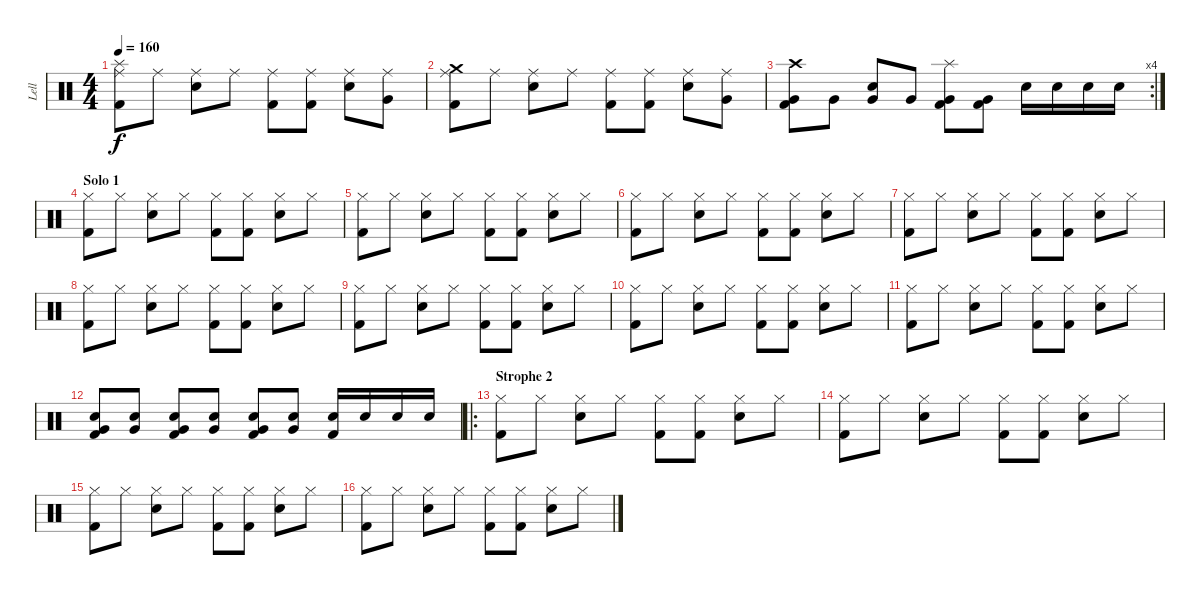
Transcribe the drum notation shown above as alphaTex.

\track ("Lell" "Lell") {instrument percussion}
\staff {score}
\articulation defaults
\ts (4 4)
\tempo 160
\clef neutral
\ks c
("Splash (hit)" "Ride (middle)" "Kick (hit) 2").8{dy f} "Ride (middle)".8 ("Ride (middle)" "Snare (hit) 2").8 "Ride (middle)".8 ("Ride (middle)" "Kick (hit) 2").8 ("Ride (middle)" "Kick (hit) 2").8 ("Ride (middle)" "Snare (hit) 2").8 ("Ride (middle)" "Very Low Tom (hit)").8 |
("Crash medium (hit)" "Ride (middle)" "Kick (hit) 2").8 "Ride (middle)".8 ("Ride (middle)" "Snare (hit) 2").8 "Ride (middle)".8 ("Ride (middle)" "Kick (hit) 2").8 ("Ride (middle)" "Kick (hit) 2").8 ("Ride (middle)" "Snare (hit) 2").8 ("Ride (middle)" "Very Low Tom (hit)").8 |
\rc 4
("Crash high (hit)" "Very Low Tom (hit)" "Kick (hit) 2").8 "Very Low Tom (hit)".8 ("Very Low Tom (hit)" "Snare (hit) 2").8 "Very Low Tom (hit)".8 ("Splash (hit)" "Very Low Tom (hit)" "Kick (hit) 2").8 ("Very Low Tom (hit)" "Kick (hit) 2").8 "Snare (hit) 2".16 "Snare (hit) 2".16 "Snare (hit) 2".16 "Snare (hit) 2".16 |
\section ("" "Solo 1")
("Hi-Hat (closed)" "Kick (hit) 2").8 "Hi-Hat (closed)".8 ("Hi-Hat (closed)" "Snare (hit) 2").8 "Hi-Hat (closed)".8 ("Hi-Hat (closed)" "Kick (hit) 2").8 ("Hi-Hat (closed)" "Kick (hit) 2").8 ("Hi-Hat (closed)" "Snare (hit) 2").8 "Hi-Hat (closed)".8 |
("Hi-Hat (closed)" "Kick (hit) 2").8 "Hi-Hat (closed)".8 ("Hi-Hat (closed)" "Snare (hit) 2").8 "Hi-Hat (closed)".8 ("Hi-Hat (closed)" "Kick (hit) 2").8 ("Hi-Hat (closed)" "Kick (hit) 2").8 ("Hi-Hat (closed)" "Snare (hit) 2").8 "Hi-Hat (closed)".8 |
("Hi-Hat (closed)" "Kick (hit) 2").8 "Hi-Hat (closed)".8 ("Hi-Hat (closed)" "Snare (hit) 2").8 "Hi-Hat (closed)".8 ("Hi-Hat (closed)" "Kick (hit) 2").8 ("Hi-Hat (closed)" "Kick (hit) 2").8 ("Hi-Hat (closed)" "Snare (hit) 2").8 "Hi-Hat (closed)".8 |
("Hi-Hat (closed)" "Kick (hit) 2").8 "Hi-Hat (closed)".8 ("Hi-Hat (closed)" "Snare (hit) 2").8 "Hi-Hat (closed)".8 ("Hi-Hat (closed)" "Kick (hit) 2").8 ("Hi-Hat (closed)" "Kick (hit) 2").8 ("Hi-Hat (closed)" "Snare (hit) 2").8 "Hi-Hat (closed)".8 |
("Hi-Hat (closed)" "Kick (hit) 2").8 "Hi-Hat (closed)".8 ("Hi-Hat (closed)" "Snare (hit) 2").8 "Hi-Hat (closed)".8 ("Hi-Hat (closed)" "Kick (hit) 2").8 ("Hi-Hat (closed)" "Kick (hit) 2").8 ("Hi-Hat (closed)" "Snare (hit) 2").8 "Hi-Hat (closed)".8 |
("Hi-Hat (closed)" "Kick (hit) 2").8 "Hi-Hat (closed)".8 ("Hi-Hat (closed)" "Snare (hit) 2").8 "Hi-Hat (closed)".8 ("Hi-Hat (closed)" "Kick (hit) 2").8 ("Hi-Hat (closed)" "Kick (hit) 2").8 ("Hi-Hat (closed)" "Snare (hit) 2").8 "Hi-Hat (closed)".8 |
("Hi-Hat (closed)" "Kick (hit) 2").8 "Hi-Hat (closed)".8 ("Hi-Hat (closed)" "Snare (hit) 2").8 "Hi-Hat (closed)".8 ("Hi-Hat (closed)" "Kick (hit) 2").8 ("Hi-Hat (closed)" "Kick (hit) 2").8 ("Hi-Hat (closed)" "Snare (hit) 2").8 "Hi-Hat (closed)".8 |
("Hi-Hat (closed)" "Kick (hit) 2").8 "Hi-Hat (closed)".8 ("Hi-Hat (closed)" "Snare (hit) 2").8 "Hi-Hat (closed)".8 ("Hi-Hat (closed)" "Kick (hit) 2").8 ("Hi-Hat (closed)" "Kick (hit) 2").8 ("Hi-Hat (closed)" "Snare (hit) 2").8 "Hi-Hat (closed)".8 |
("Very Low Tom (hit)" "Snare (hit) 2" "Kick (hit) 2").8 ("Very Low Tom (hit)" "Snare (hit) 2").8 ("Very Low Tom (hit)" "Snare (hit) 2" "Kick (hit) 2").8 ("Very Low Tom (hit)" "Snare (hit) 2").8 ("Very Low Tom (hit)" "Snare (hit) 2" "Kick (hit) 2").8 ("Very Low Tom (hit)" "Snare (hit) 2").8 ("Snare (hit) 2" "Kick (hit) 2").16 "Snare (hit) 2".16 "Snare (hit) 2".16 "Snare (hit) 2".16 |
\ro
\section ("" "Strophe 2")
("Hi-Hat (closed)" "Kick (hit) 2").8 "Hi-Hat (closed)".8 ("Hi-Hat (closed)" "Snare (hit) 2").8 "Hi-Hat (closed)".8 ("Hi-Hat (closed)" "Kick (hit) 2").8 ("Hi-Hat (closed)" "Kick (hit) 2").8 ("Hi-Hat (closed)" "Snare (hit) 2").8 "Hi-Hat (closed)".8 |
("Hi-Hat (closed)" "Kick (hit) 2").8 "Hi-Hat (closed)".8 ("Hi-Hat (closed)" "Snare (hit) 2").8 "Hi-Hat (closed)".8 ("Hi-Hat (closed)" "Kick (hit) 2").8 ("Hi-Hat (closed)" "Kick (hit) 2").8 ("Hi-Hat (closed)" "Snare (hit) 2").8 "Hi-Hat (closed)".8 |
("Hi-Hat (closed)" "Kick (hit) 2").8 "Hi-Hat (closed)".8 ("Hi-Hat (closed)" "Snare (hit) 2").8 "Hi-Hat (closed)".8 ("Hi-Hat (closed)" "Kick (hit) 2").8 ("Hi-Hat (closed)" "Kick (hit) 2").8 ("Hi-Hat (closed)" "Snare (hit) 2").8 "Hi-Hat (closed)".8 |
("Hi-Hat (closed)" "Kick (hit) 2").8 "Hi-Hat (closed)".8 ("Hi-Hat (closed)" "Snare (hit) 2").8 "Hi-Hat (closed)".8 ("Hi-Hat (closed)" "Kick (hit) 2").8 ("Hi-Hat (closed)" "Kick (hit) 2").8 ("Hi-Hat (closed)" "Snare (hit) 2").8 "Hi-Hat (closed)".8
